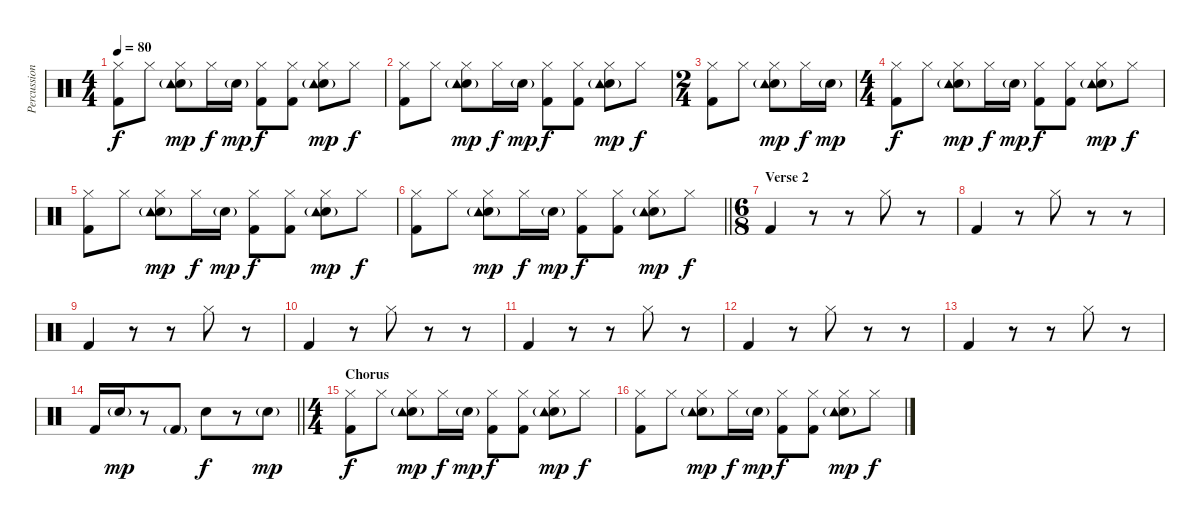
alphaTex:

\track ("Percussion" "Percussion") {instrument percussion}
\staff {score}
\articulation defaults
\ts (4 4)
\tempo 80
\clef neutral
\ks c
("Hi-Hat (closed)" "Kick (hit) 2").8{dy f} "Hi-Hat (closed)".8 ("Hi-Hat (closed)" "Snare (hit) 2" "Tambourine (hit)"{g}).8{dy mp} "Hi-Hat (closed)".16{dy f} "Snare (hit) 2"{g}.16{dy mp} ("Hi-Hat (closed)" "Kick (hit) 2").8{dy f} ("Hi-Hat (closed)" "Kick (hit) 2").8 ("Hi-Hat (closed)" "Snare (hit) 2" "Tambourine (hit)"{g}).8{dy mp} "Hi-Hat (closed)".8{dy f} |
("Hi-Hat (closed)" "Kick (hit) 2").8 "Hi-Hat (closed)".8 ("Hi-Hat (closed)" "Snare (hit) 2" "Tambourine (hit)"{g}).8{dy mp} "Hi-Hat (closed)".16{dy f} "Snare (hit) 2"{g}.16{dy mp} ("Hi-Hat (closed)" "Kick (hit) 2").8{dy f} ("Hi-Hat (closed)" "Kick (hit) 2").8 ("Hi-Hat (closed)" "Snare (hit) 2" "Tambourine (hit)"{g}).8{dy mp} "Hi-Hat (closed)".8{dy f} |
\ts (2 4)
("Hi-Hat (closed)" "Kick (hit) 2").8 "Hi-Hat (closed)".8 ("Hi-Hat (closed)" "Snare (hit) 2" "Tambourine (hit)"{g}).8{dy mp} "Hi-Hat (closed)".16{dy f} "Snare (hit) 2"{g}.16{dy mp} |
\ts (4 4)
("Hi-Hat (closed)" "Kick (hit) 2").8{dy f} "Hi-Hat (closed)".8 ("Hi-Hat (closed)" "Snare (hit) 2" "Tambourine (hit)"{g}).8{dy mp} "Hi-Hat (closed)".16{dy f} "Snare (hit) 2"{g}.16{dy mp} ("Hi-Hat (closed)" "Kick (hit) 2").8{dy f} ("Hi-Hat (closed)" "Kick (hit) 2").8 ("Hi-Hat (closed)" "Snare (hit) 2" "Tambourine (hit)"{g}).8{dy mp} "Hi-Hat (closed)".8{dy f} |
("Hi-Hat (closed)" "Kick (hit) 2").8 "Hi-Hat (closed)".8 ("Hi-Hat (closed)" "Snare (hit) 2" "Tambourine (hit)"{g}).8{dy mp} "Hi-Hat (closed)".16{dy f} "Snare (hit) 2"{g}.16{dy mp} ("Hi-Hat (closed)" "Kick (hit) 2").8{dy f} ("Hi-Hat (closed)" "Kick (hit) 2").8 ("Hi-Hat (closed)" "Snare (hit) 2" "Tambourine (hit)"{g}).8{dy mp} "Hi-Hat (closed)".8{dy f} |
\barLineRight lightlight
("Hi-Hat (closed)" "Kick (hit) 2").8 "Hi-Hat (closed)".8 ("Hi-Hat (closed)" "Snare (hit) 2" "Tambourine (hit)"{g}).8{dy mp} "Hi-Hat (closed)".16{dy f} "Snare (hit) 2"{g}.16{dy mp} ("Hi-Hat (closed)" "Kick (hit) 2").8{dy f} ("Hi-Hat (closed)" "Kick (hit) 2").8 ("Hi-Hat (closed)" "Snare (hit) 2" "Tambourine (hit)"{g}).8{dy mp} "Hi-Hat (closed)".8{dy f} |
\ts (6 8)
\section ("" "Verse 2")
"Kick (hit) 2".4{volume 6} r.8 r.8 "Hi-Hat (closed)".8{volume 13} r.8 |
"Kick (hit) 2".4{volume 6} r.8 "Hi-Hat (closed)".8{volume 13} r.8 r.8 |
"Kick (hit) 2".4{volume 6} r.8 r.8 "Hi-Hat (closed)".8{volume 13} r.8 |
"Kick (hit) 2".4{volume 6} r.8 "Hi-Hat (closed)".8{volume 13} r.8 r.8 |
"Kick (hit) 2".4{volume 6} r.8 r.8 "Hi-Hat (closed)".8{volume 13} r.8 |
"Kick (hit) 2".4{volume 6} r.8 "Hi-Hat (closed)".8{volume 13} r.8 r.8 |
"Kick (hit) 2".4{volume 6} r.8 r.8 "Hi-Hat (closed)".8{volume 13} r.8 |
\barLineRight lightlight "Kick (hit) 2".16{volume 6} "Snare (hit) 2"{g}.16{dy mp}
r.8 "Kick (hit) 2"{g}.8 "Snare (hit) 2".8{dy f} r.8 "Snare (hit) 2"{g}.8{dy mp} |
\ts (4 4)
\section ("" "Chorus")
("Hi-Hat (closed)" "Kick (hit) 2").8{dy f} "Hi-Hat (closed)".8 ("Hi-Hat (closed)" "Snare (hit) 2" "Tambourine (hit)"{g}).8{dy mp} "Hi-Hat (closed)".16{dy f} "Snare (hit) 2"{g}.16{dy mp} ("Hi-Hat (closed)" "Kick (hit) 2").8{dy f} ("Hi-Hat (closed)" "Kick (hit) 2").8 ("Hi-Hat (closed)" "Snare (hit) 2" "Tambourine (hit)"{g}).8{dy mp} "Hi-Hat (closed)".8{dy f} |
("Hi-Hat (closed)" "Kick (hit) 2").8 "Hi-Hat (closed)".8 ("Hi-Hat (closed)" "Snare (hit) 2" "Tambourine (hit)"{g}).8{dy mp} "Hi-Hat (closed)".16{dy f} "Snare (hit) 2"{g}.16{dy mp} ("Hi-Hat (closed)" "Kick (hit) 2").8{dy f} ("Hi-Hat (closed)" "Kick (hit) 2").8 ("Hi-Hat (closed)" "Snare (hit) 2" "Tambourine (hit)"{g}).8{dy mp} "Hi-Hat (closed)".8{dy f}
